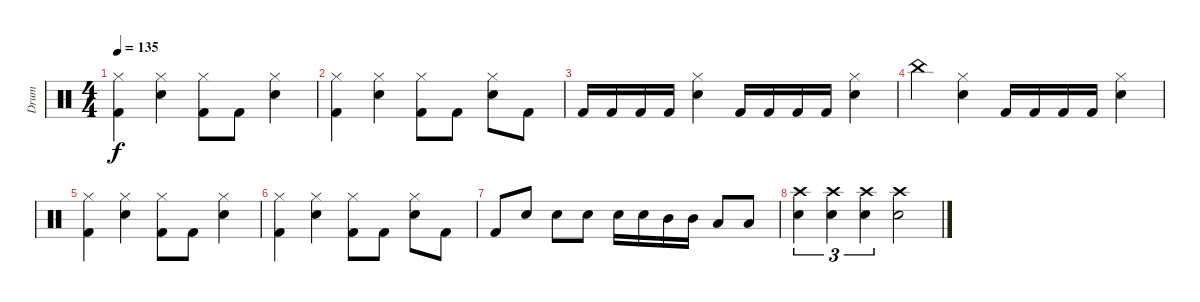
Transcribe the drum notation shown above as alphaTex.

\track ("Drum" "Drum") {instrument percussion}
\staff {score}
\articulation defaults
\ts (4 4)
\tempo 135
\clef neutral
\ks c
("Kick (hit) 2" "Hi-Hat (closed)").4{dy f} ("Snare (hit) 2" "Hi-Hat (closed)").4 ("Kick (hit) 2" "Hi-Hat (closed)").8 "Kick (hit) 2".8 ("Snare (hit) 2" "Hi-Hat (closed)").4 |
("Kick (hit) 2" "Hi-Hat (closed)").4 ("Snare (hit) 2" "Hi-Hat (closed)").4 ("Kick (hit) 2" "Hi-Hat (closed)").8 "Kick (hit) 2".8 ("Snare (hit) 2" "Hi-Hat (closed)").8 "Kick (hit) 2".8 |
"Kick (hit) 2".16 "Kick (hit) 2".16 "Kick (hit) 2".16 "Kick (hit) 2".16 ("Snare (hit) 2" "Hi-Hat (closed)").4 "Kick (hit) 2".16 "Kick (hit) 2".16 "Kick (hit) 2".16 "Kick (hit) 2".16 ("Snare (hit) 2" "Hi-Hat (closed)").4 |
"China (hit)".4 ("Snare (hit) 2" "Hi-Hat (closed)").4 "Kick (hit) 2".16 "Kick (hit) 2".16 "Kick (hit) 2".16 "Kick (hit) 2".16 ("Snare (hit) 2" "Hi-Hat (closed)").4 |
("Kick (hit) 2" "Hi-Hat (closed)").4 ("Snare (hit) 2" "Hi-Hat (closed)").4 ("Kick (hit) 2" "Hi-Hat (closed)").8 "Kick (hit) 2".8 ("Snare (hit) 2" "Hi-Hat (closed)").4 |
("Kick (hit) 2" "Hi-Hat (closed)").4 ("Snare (hit) 2" "Hi-Hat (closed)").4 ("Kick (hit) 2" "Hi-Hat (closed)").8 "Kick (hit) 2".8 ("Snare (hit) 2" "Hi-Hat (closed)").8 "Kick (hit) 2".8 |
"Kick (hit) 2".8 "Electric Snare (hit)".8 "Electric Snare (hit)".8 "Electric Snare (hit)".8 "Electric Snare (hit)".16 "Electric Snare (hit)".16 "Mid Tom (hit)".16 "Mid Tom (hit)".16 "Low Tom (hit)".8 "Low Tom (hit)".8 |
("Crash high (hit)" "Electric Snare (hit)").4{tu (3 2)} ("Crash high (hit)" "Electric Snare (hit)").4{tu (3 2)} ("Crash high (hit)" "Electric Snare (hit)").4{tu (3 2)} ("Crash high (hit)" "Electric Snare (hit)").2
